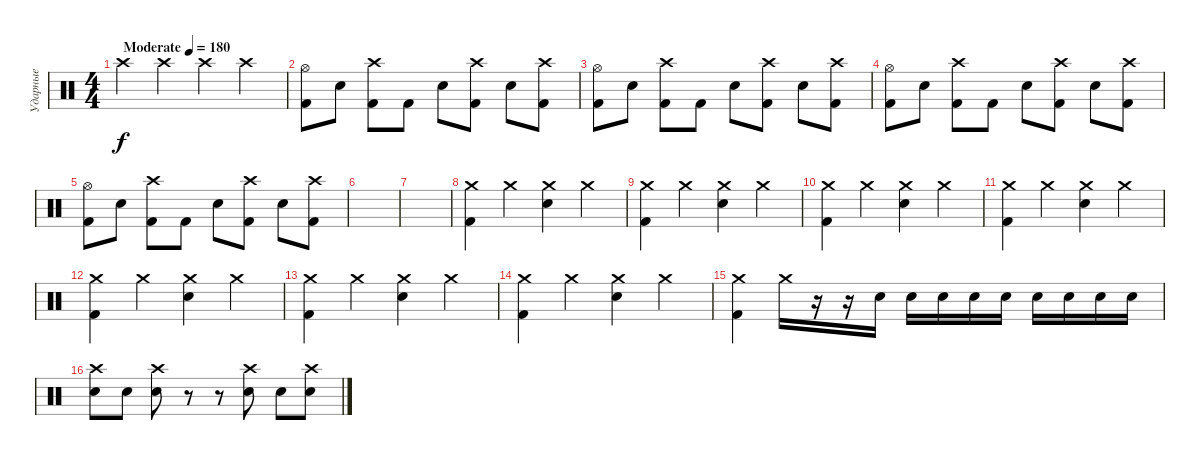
\track ("Ударные" "Ударные") {instrument percussion}
\staff {score}
\articulation defaults
\ts (4 4)
\tempo (180 "Moderate")
\clef neutral
\ks c "Crash high (hit)".4{dy f} "Crash high (hit)".4 "Crash high (hit)".4 "Crash high (hit)".4
|
("Hi-Hat (open)" "Kick (hit) 2").8 "Electric Snare (hit)".8 ("Crash high (hit)" "Kick (hit) 2").8 "Kick (hit) 2".8 "Electric Snare (hit)".8 ("Crash high (hit)" "Kick (hit) 2").8 "Electric Snare (hit)".8 ("Crash high (hit)" "Kick (hit) 2").8 |
("Hi-Hat (open)" "Kick (hit) 2").8 "Electric Snare (hit)".8 ("Crash high (hit)" "Kick (hit) 2").8 "Kick (hit) 2".8 "Electric Snare (hit)".8 ("Crash high (hit)" "Kick (hit) 2").8 "Electric Snare (hit)".8 ("Crash high (hit)" "Kick (hit) 2").8 |
("Hi-Hat (open)" "Kick (hit) 2").8 "Electric Snare (hit)".8 ("Crash high (hit)" "Kick (hit) 2").8 "Kick (hit) 2".8 "Electric Snare (hit)".8 ("Crash high (hit)" "Kick (hit) 2").8 "Electric Snare (hit)".8 ("Crash high (hit)" "Kick (hit) 2").8 |
("Hi-Hat (open)" "Kick (hit) 2").8 "Electric Snare (hit)".8 ("Crash high (hit)" "Kick (hit) 2").8 "Kick (hit) 2".8 "Electric Snare (hit)".8 ("Crash high (hit)" "Kick (hit) 2").8 "Electric Snare (hit)".8 ("Crash high (hit)" "Kick (hit) 2").8 |
|
|
("Crash medium (hit)" "Kick (hit) 2").4 "Crash medium (hit)".4 ("Crash medium (hit)" "Electric Snare (hit)").4 "Crash medium (hit)".4 |
("Crash medium (hit)" "Kick (hit) 2").4 "Crash medium (hit)".4 ("Crash medium (hit)" "Electric Snare (hit)").4 "Crash medium (hit)".4 |
("Crash medium (hit)" "Kick (hit) 2").4 "Crash medium (hit)".4 ("Crash medium (hit)" "Electric Snare (hit)").4 "Crash medium (hit)".4 |
("Crash medium (hit)" "Kick (hit) 2").4 "Crash medium (hit)".4 ("Crash medium (hit)" "Electric Snare (hit)").4 "Crash medium (hit)".4 |
("Crash medium (hit)" "Kick (hit) 2").4 "Crash medium (hit)".4 ("Crash medium (hit)" "Electric Snare (hit)").4 "Crash medium (hit)".4 |
("Crash medium (hit)" "Kick (hit) 2").4 "Crash medium (hit)".4 ("Crash medium (hit)" "Electric Snare (hit)").4 "Crash medium (hit)".4 |
("Crash medium (hit)" "Kick (hit) 2").4 "Crash medium (hit)".4 ("Crash medium (hit)" "Electric Snare (hit)").4 "Crash medium (hit)".4 |
("Crash medium (hit)" "Kick (hit) 2").4 "Crash medium (hit)".16 r.16 r.16 "Electric Snare (hit)".16 "Electric Snare (hit)".16 "Electric Snare (hit)".16 "Electric Snare (hit)".16 "Electric Snare (hit)".16 "Electric Snare (hit)".16 "Electric Snare (hit)".16 "Electric Snare (hit)".16 "Electric Snare (hit)".16 |
("Crash high (hit)" "Electric Snare (hit)").8 "Electric Snare (hit)".8 ("Crash high (hit)" "Electric Snare (hit)").8 r.8 r.8 ("Crash high (hit)" "Electric Snare (hit)").8 "Electric Snare (hit)".8 ("Crash high (hit)" "Electric Snare (hit)").8
